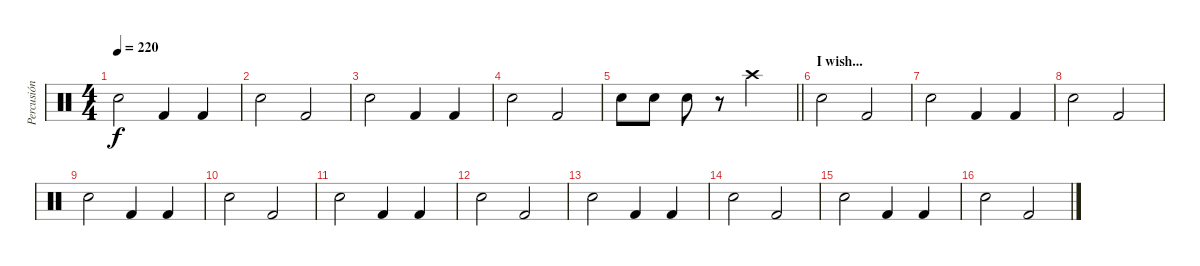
\track ("Percusión" "Percusión") {instrument percussion}
\staff {score}
\articulation defaults
\ts (4 4)
\tempo 220
\clef neutral
\ks c "Electric Snare (hit)".2{dy f} "Kick (hit) 2".4 "Kick (hit) 2".4
|
"Electric Snare (hit)".2 "Kick (hit) 2".2 |
"Electric Snare (hit)".2 "Kick (hit) 2".4 "Kick (hit) 2".4 |
"Electric Snare (hit)".2 "Kick (hit) 2".2 |
\barLineRight lightlight "Electric Snare (hit)".8 "Electric Snare (hit)".8 "Electric Snare (hit)".8
r.8 "Crash high (hit)".2 |
\section ("" "I wish...")
"Electric Snare (hit)".2 "Kick (hit) 2".2 |
"Electric Snare (hit)".2 "Kick (hit) 2".4 "Kick (hit) 2".4 |
"Electric Snare (hit)".2 "Kick (hit) 2".2 |
"Electric Snare (hit)".2 "Kick (hit) 2".4 "Kick (hit) 2".4 |
"Electric Snare (hit)".2 "Kick (hit) 2".2 |
"Electric Snare (hit)".2 "Kick (hit) 2".4 "Kick (hit) 2".4 |
"Electric Snare (hit)".2 "Kick (hit) 2".2 |
"Electric Snare (hit)".2 "Kick (hit) 2".4 "Kick (hit) 2".4 |
"Electric Snare (hit)".2 "Kick (hit) 2".2 |
"Electric Snare (hit)".2 "Kick (hit) 2".4 "Kick (hit) 2".4 |
"Electric Snare (hit)".2 "Kick (hit) 2".2
